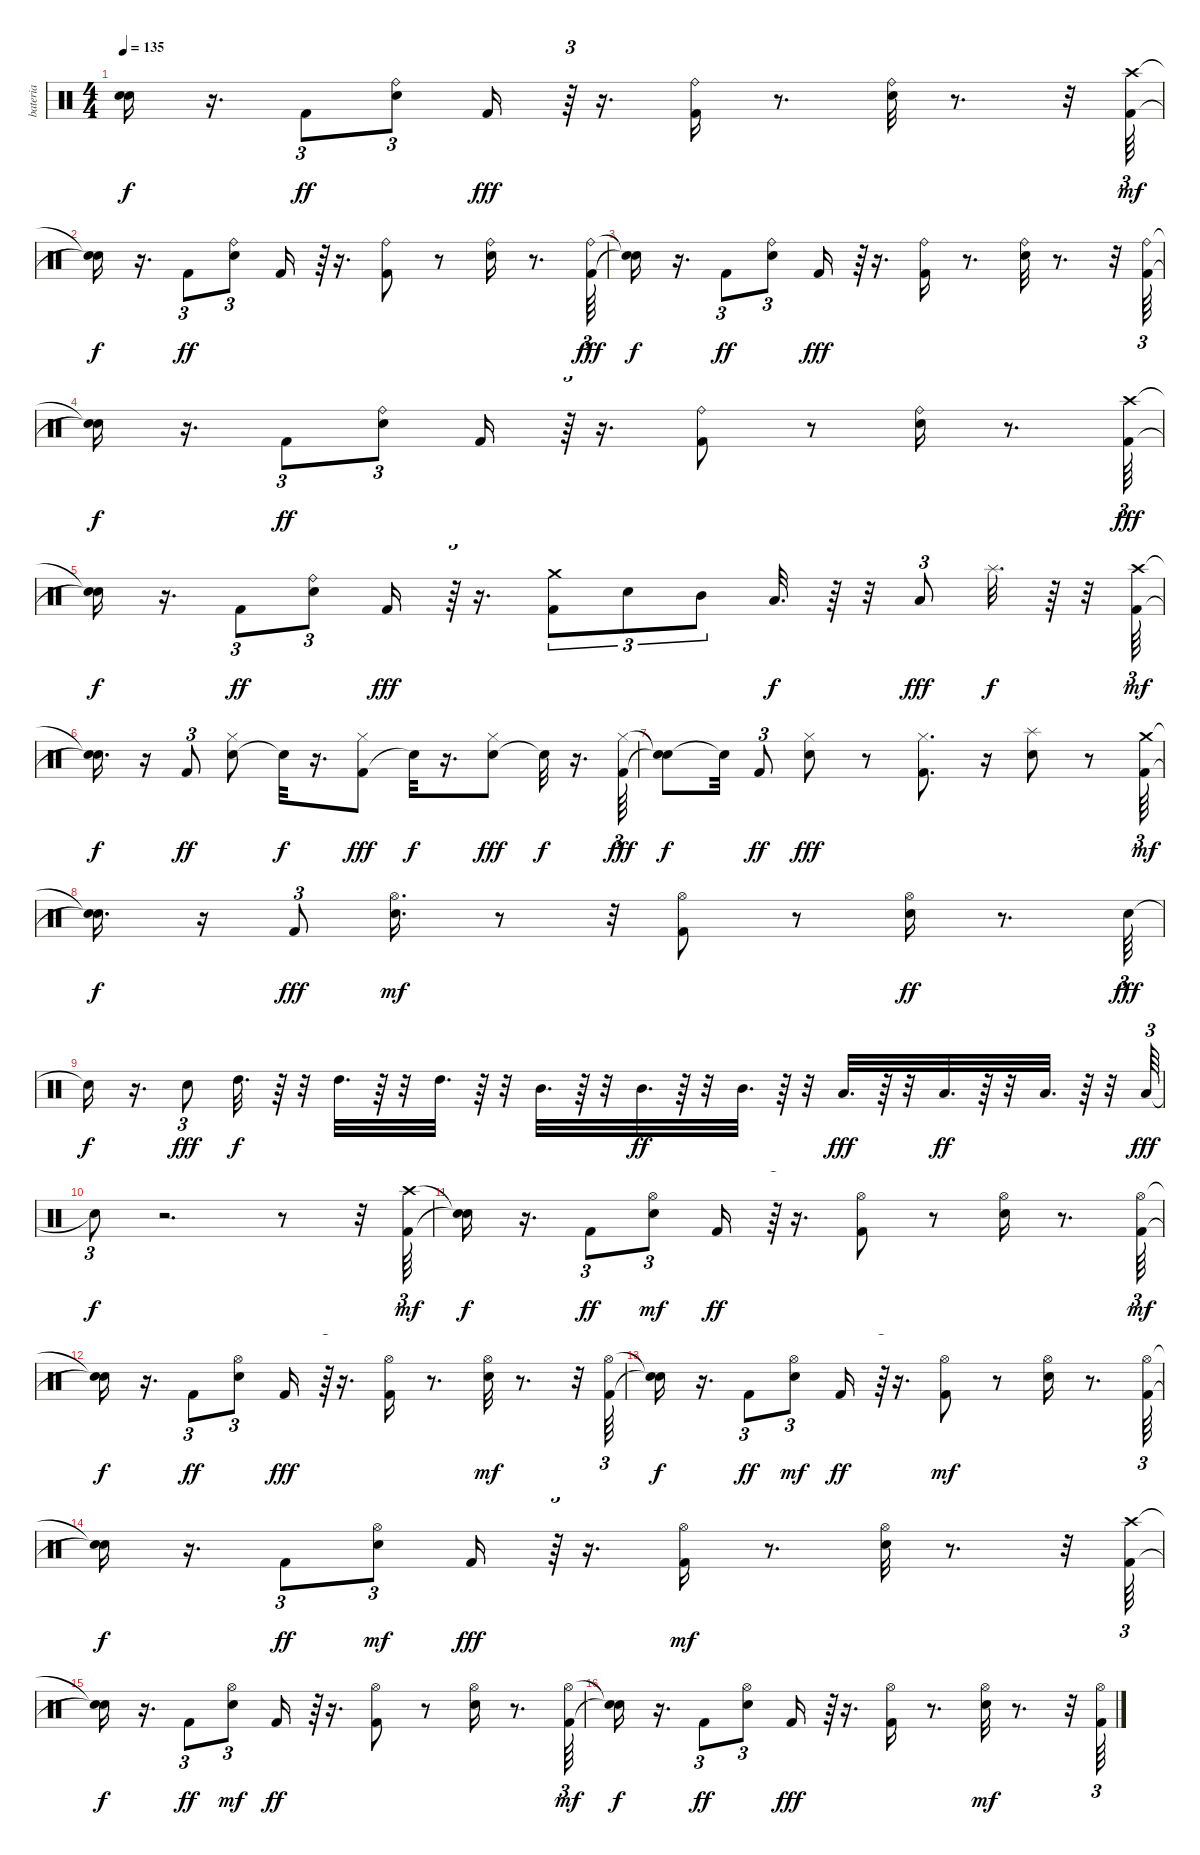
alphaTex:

\track ("bateria" "bateria") {instrument percussion}
\staff {score}
\articulation defaults
\ts (4 4)
\tempo 135
\clef neutral
\ks c
("Snare (hit)"{t} "Snare (hit)"{t}).16{dy f} r.16{d} "Kick (hit) 2".8{tu (3 2) dy ff} ("Ride (bell)" "Electric Snare (hit)").8{tu (3 2)} "Kick (hit) 2".16{dy fff} r.64{tu (3 2)} r.16{d} ("Ride (bell)" "Kick (hit) 2").16 r.8{d} ("Ride (bell)" "Electric Snare (hit)").32 r.8{d} r.32 ("Kick (hit) 2" "Crash high (hit)").64{tu (3 2) dy mf} |
("Snare (hit)"{t} "Snare (hit)"{t}).16{dy f} r.16{d} "Kick (hit) 2".8{tu (3 2) dy ff} ("Ride (bell)" "Electric Snare (hit)").8{tu (3 2)} "Kick (hit) 2".16 r.64{tu (3 2)} r.16{d} ("Ride (bell)" "Kick (hit) 2").8 r.8 ("Ride (bell)" "Electric Snare (hit)").16 r.8{d} ("Ride (bell)" "Kick (hit) 2").64{tu (3 2) dy fff} |
("Snare (hit)"{t} "Snare (hit)"{t}).16{dy f} r.16{d} "Kick (hit) 2".8{tu (3 2) dy ff} ("Ride (bell)" "Electric Snare (hit)").8{tu (3 2)} "Kick (hit) 2".16{dy fff} r.64{tu (3 2)} r.16{d} ("Ride (bell)" "Kick (hit) 2").16 r.8{d} ("Ride (bell)" "Electric Snare (hit)").32 r.8{d} r.32 ("Ride (bell)" "Kick (hit) 2").64{tu (3 2)} |
("Snare (hit)"{t} "Snare (hit)"{t}).16{dy f} r.16{d} "Kick (hit) 2".8{tu (3 2) dy ff} ("Ride (bell)" "Electric Snare (hit)").8{tu (3 2)} "Kick (hit) 2".16 r.64{tu (3 2)} r.16{d} ("Ride (bell)" "Kick (hit) 2").8 r.8 ("Ride (bell)" "Electric Snare (hit)").16 r.8{d} ("Crash high (hit)" "Kick (hit) 2").64{tu (3 2) dy fff} |
("Snare (hit)"{t} "Snare (hit)"{t}).16{dy f} r.16{d} "Kick (hit) 2".8{tu (3 2) dy ff} ("Ride (bell)" "Electric Snare (hit)").8{tu (3 2)} "Kick (hit) 2".16{dy fff} r.64{tu (3 2)} r.16{d} ("Crash medium (hit)" "Kick (hit) 2").8{tu (3 2)} "Electric Snare (hit)".8{tu (3 2)} "Mid Tom (hit)".8{tu (3 2)} "Low Tom (hit)".32{d dy f} r.64 r.32 "Low Floor Tom (hit)".8{tu (3 2) dy fff} "Splash (hit)".32{d dy f} r.64 r.32 ("Kick (hit) 2" "Crash high (hit)").64{tu (3 2) dy mf} |
("Snare (hit)"{t} "Snare (hit)"{t}).16{d dy f} r.16 "Kick (hit) 2".8{tu (3 2) dy ff} ("Electric Snare (hit)" "Hi-Hat (closed)").8 "Snare (hit)"{t}.32{dy f} r.16{d} ("Kick (hit) 2" "Hi-Hat (closed)").8{dy fff} "Snare (hit)"{t}.32{dy f} r.16{d} ("Electric Snare (hit)" "Hi-Hat (closed)").8{dy fff} "Snare (hit)"{t}.32{dy f} r.16{d} ("Kick (hit) 2" "Hi-Hat (closed)").64{tu (3 2) dy fff} |
("Snare (hit)"{t} "Snare (hit)"{t}).8{dy f} "Snare (hit)"{t}.32 "Kick (hit) 2".8{tu (3 2) dy ff} ("Electric Snare (hit)" "Hi-Hat (closed)").8{dy fff} r.8 ("Kick (hit) 2" "Hi-Hat (closed)").8{d} r.16 ("Electric Snare (hit)" "Splash (hit)").8 r.8 ("Kick (hit) 2" "Crash medium (hit)").64{tu (3 2) dy mf} |
("Snare (hit)"{t} "Snare (hit)"{t}).16{d dy f} r.16 "Kick (hit) 2".8{tu (3 2) dy fff} ("Electric Snare (hit)" "Hi-Hat (open)").16{d dy mf} r.8 r.32 ("Kick (hit) 2" "Hi-Hat (open)").8 r.8 ("Electric Snare (hit)" "Hi-Hat (open)").16{dy ff} r.8{d} "Electric Snare (hit)".64{tu (3 2) dy fff} |
"Snare (hit)"{t}.16{dy f} r.16{d} "Electric Snare (hit)".8{tu (3 2) dy fff} "High Tom (hit)".32{d dy f} r.64 r.32 "High Tom (hit)".32{d} r.64 r.32 "High Tom (hit)".32{d} r.64 r.32 "Mid Tom (hit)".32{d} r.64 r.32 "Mid Tom (hit)".32{d dy ff} r.64 r.32 "Mid Tom (hit)".32{d} r.64 r.32 "Low Tom (hit)".32{d dy fff} r.64 r.32 "Low Tom (hit)".32{d dy ff} r.64 r.32 "Low Tom (hit)".32{d} r.64 r.32 "Low Floor Tom (hit)".64{tu (3 2) dy fff} |
"Snare (hit)"{t}.8{tu (3 2) dy f} r.2{d} r.8 r.32 ("Kick (hit) 2" "Crash high (hit)").64{tu (3 2) dy mf} |
("Snare (hit)"{t} "Snare (hit)"{t}).16{dy f} r.16{d} "Kick (hit) 2".8{tu (3 2) dy ff} ("Hi-Hat (open)" "Electric Snare (hit)").8{tu (3 2) dy mf} "Kick (hit) 2".16{dy ff} r.64{tu (3 2)} r.16{d} ("Hi-Hat (open)" "Kick (hit) 2").8 r.8 ("Hi-Hat (open)" "Electric Snare (hit)").16 r.8{d} ("Kick (hit) 2" "Hi-Hat (open)").64{tu (3 2) dy mf} |
("Snare (hit)"{t} "Snare (hit)"{t}).16{dy f} r.16{d} "Kick (hit) 2".8{tu (3 2) dy ff} ("Hi-Hat (open)" "Electric Snare (hit)").8{tu (3 2)} "Kick (hit) 2".16{dy fff} r.64{tu (3 2)} r.16{d} ("Hi-Hat (open)" "Kick (hit) 2").16 r.8{d} ("Electric Snare (hit)" "Hi-Hat (open)").32{dy mf} r.8{d} r.32 ("Kick (hit) 2" "Hi-Hat (open)").64{tu (3 2)} |
("Snare (hit)"{t} "Snare (hit)"{t}).16{dy f} r.16{d} "Kick (hit) 2".8{tu (3 2) dy ff} ("Electric Snare (hit)" "Hi-Hat (open)").8{tu (3 2) dy mf} "Kick (hit) 2".16{dy ff} r.64{tu (3 2)} r.16{d} ("Kick (hit) 2" "Hi-Hat (open)").8{dy mf} r.8 ("Electric Snare (hit)" "Hi-Hat (open)").16 r.8{d} ("Kick (hit) 2" "Hi-Hat (open)").64{tu (3 2)} |
("Snare (hit)"{t} "Snare (hit)"{t}).16{dy f} r.16{d} "Kick (hit) 2".8{tu (3 2) dy ff} ("Electric Snare (hit)" "Hi-Hat (open)").8{tu (3 2) dy mf} "Kick (hit) 2".16{dy fff} r.64{tu (3 2)} r.16{d} ("Kick (hit) 2" "Hi-Hat (open)").16{dy mf} r.8{d} ("Electric Snare (hit)" "Hi-Hat (open)").32 r.8{d} r.32 ("Kick (hit) 2" "Crash high (hit)").64{tu (3 2)} |
("Snare (hit)"{t} "Snare (hit)"{t}).16{dy f} r.16{d} "Kick (hit) 2".8{tu (3 2) dy ff} ("Hi-Hat (open)" "Electric Snare (hit)").8{tu (3 2) dy mf} "Kick (hit) 2".16{dy ff} r.64{tu (3 2)} r.16{d} ("Hi-Hat (open)" "Kick (hit) 2").8 r.8 ("Hi-Hat (open)" "Electric Snare (hit)").16 r.8{d} ("Kick (hit) 2" "Hi-Hat (open)").64{tu (3 2) dy mf} |
("Snare (hit)"{t} "Snare (hit)"{t}).16{dy f} r.16{d} "Kick (hit) 2".8{tu (3 2) dy ff} ("Hi-Hat (open)" "Electric Snare (hit)").8{tu (3 2)} "Kick (hit) 2".16{dy fff} r.64{tu (3 2)} r.16{d} ("Hi-Hat (open)" "Kick (hit) 2").16 r.8{d} ("Electric Snare (hit)" "Hi-Hat (open)").32{dy mf} r.8{d} r.32 ("Kick (hit) 2" "Hi-Hat (open)").64{tu (3 2)}
